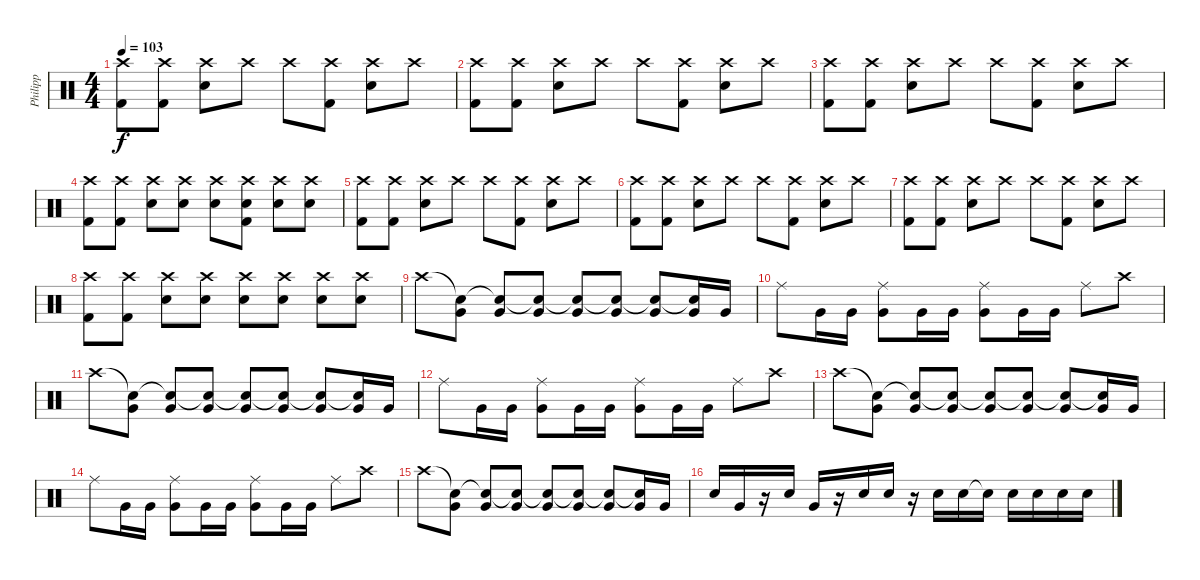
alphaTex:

\track ("Philipp" "Philipp") {instrument percussion}
\staff {score}
\articulation defaults
\ts (4 4)
\tempo 103
\clef neutral
\ks c
("Crash high (hit)" "Kick (hit) 2").8{dy f} ("Crash high (hit)" "Kick (hit) 2").8 ("Crash high (hit)" "Electric Snare (hit)").8 "Crash high (hit)".8 "Crash high (hit)".8 ("Crash high (hit)" "Kick (hit) 2").8 ("Crash high (hit)" "Electric Snare (hit)").8 "Crash high (hit)".8 |
("Crash high (hit)" "Kick (hit) 2").8 ("Crash high (hit)" "Kick (hit) 2").8 ("Crash high (hit)" "Electric Snare (hit)").8 "Crash high (hit)".8 "Crash high (hit)".8 ("Crash high (hit)" "Kick (hit) 2").8 ("Crash high (hit)" "Electric Snare (hit)").8 "Crash high (hit)".8 |
("Crash high (hit)" "Kick (hit) 2").8 ("Crash high (hit)" "Kick (hit) 2").8 ("Crash high (hit)" "Electric Snare (hit)").8 "Crash high (hit)".8 "Crash high (hit)".8 ("Crash high (hit)" "Kick (hit) 2").8 ("Crash high (hit)" "Electric Snare (hit)").8 "Crash high (hit)".8 |
("Crash high (hit)" "Kick (hit) 2").8 ("Crash high (hit)" "Kick (hit) 2").8 ("Crash high (hit)" "Electric Snare (hit)").8 ("Crash high (hit)" "Electric Snare (hit)").8 ("Crash high (hit)" "Electric Snare (hit)").8 ("Crash high (hit)" "Electric Snare (hit)" "Kick (hit) 2").8 ("Crash high (hit)" "Electric Snare (hit)").8 ("Crash high (hit)" "Electric Snare (hit)").8 |
("Crash high (hit)" "Kick (hit) 2").8 ("Crash high (hit)" "Kick (hit) 2").8 ("Crash high (hit)" "Electric Snare (hit)").8 "Crash high (hit)".8 "Crash high (hit)".8 ("Crash high (hit)" "Kick (hit) 2").8 ("Crash high (hit)" "Electric Snare (hit)").8 "Crash high (hit)".8 |
("Crash high (hit)" "Kick (hit) 2").8 ("Crash high (hit)" "Kick (hit) 2").8 ("Crash high (hit)" "Electric Snare (hit)").8 "Crash high (hit)".8 "Crash high (hit)".8 ("Crash high (hit)" "Kick (hit) 2").8 ("Crash high (hit)" "Electric Snare (hit)").8 "Crash high (hit)".8 |
("Crash high (hit)" "Kick (hit) 2").8 ("Crash high (hit)" "Kick (hit) 2").8 ("Crash high (hit)" "Electric Snare (hit)").8 "Crash high (hit)".8 "Crash high (hit)".8 ("Crash high (hit)" "Kick (hit) 2").8 ("Crash high (hit)" "Electric Snare (hit)").8 "Crash high (hit)".8 |
("Crash high (hit)" "Kick (hit) 2").8 ("Crash high (hit)" "Kick (hit) 2").8 ("Crash high (hit)" "Electric Snare (hit)").8 ("Crash high (hit)" "Electric Snare (hit)").8 ("Crash high (hit)" "Electric Snare (hit)").8 ("Crash high (hit)" "Electric Snare (hit)").8 ("Crash high (hit)" "Electric Snare (hit)").8 ("Crash high (hit)" "Electric Snare (hit)").8 |
"Crash high (hit)".8 ("Snare (hit)"{t} "Very Low Tom (hit)").8 ("Snare (hit)"{t} "Very Low Tom (hit)").8 ("Snare (hit)"{t} "Very Low Tom (hit)").8 ("Snare (hit)"{t} "Very Low Tom (hit)").8 ("Snare (hit)"{t} "Very Low Tom (hit)").8 ("Snare (hit)"{t} "Very Low Tom (hit)").8 ("Snare (hit)"{t} "Very Low Tom (hit)").16 "Very Low Tom (hit)".16 |
"Ride (middle)".8 "Very Low Tom (hit)".16 "Very Low Tom (hit)".16 ("Ride (middle)" "Very Low Tom (hit)").8 "Very Low Tom (hit)".16 "Very Low Tom (hit)".16 ("Ride (middle)" "Very Low Tom (hit)").8 "Very Low Tom (hit)".16 "Very Low Tom (hit)".16 "Ride (middle)".8 "Crash high (hit)".8 |
"Crash high (hit)".8 ("Snare (hit)"{t} "Very Low Tom (hit)").8 ("Snare (hit)"{t} "Very Low Tom (hit)").8 ("Snare (hit)"{t} "Very Low Tom (hit)").8 ("Snare (hit)"{t} "Very Low Tom (hit)").8 ("Snare (hit)"{t} "Very Low Tom (hit)").8 ("Snare (hit)"{t} "Very Low Tom (hit)").8 ("Snare (hit)"{t} "Very Low Tom (hit)").16 "Very Low Tom (hit)".16 |
"Ride (middle)".8 "Very Low Tom (hit)".16 "Very Low Tom (hit)".16 ("Ride (middle)" "Very Low Tom (hit)").8 "Very Low Tom (hit)".16 "Very Low Tom (hit)".16 ("Ride (middle)" "Very Low Tom (hit)").8 "Very Low Tom (hit)".16 "Very Low Tom (hit)".16 "Ride (middle)".8 "Crash high (hit)".8 |
"Crash high (hit)".8 ("Snare (hit)"{t} "Very Low Tom (hit)").8 ("Snare (hit)"{t} "Very Low Tom (hit)").8 ("Snare (hit)"{t} "Very Low Tom (hit)").8 ("Snare (hit)"{t} "Very Low Tom (hit)").8 ("Snare (hit)"{t} "Very Low Tom (hit)").8 ("Snare (hit)"{t} "Very Low Tom (hit)").8 ("Snare (hit)"{t} "Very Low Tom (hit)").16 "Very Low Tom (hit)".16 |
"Ride (middle)".8 "Very Low Tom (hit)".16 "Very Low Tom (hit)".16 ("Ride (middle)" "Very Low Tom (hit)").8 "Very Low Tom (hit)".16 "Very Low Tom (hit)".16 ("Ride (middle)" "Very Low Tom (hit)").8 "Very Low Tom (hit)".16 "Very Low Tom (hit)".16 "Ride (middle)".8 "Crash high (hit)".8 |
"Crash high (hit)".8 ("Snare (hit)"{t} "Very Low Tom (hit)").8 ("Snare (hit)"{t} "Very Low Tom (hit)").8 ("Snare (hit)"{t} "Very Low Tom (hit)").8 ("Snare (hit)"{t} "Very Low Tom (hit)").8 ("Snare (hit)"{t} "Very Low Tom (hit)").8 ("Snare (hit)"{t} "Very Low Tom (hit)").8 ("Snare (hit)"{t} "Very Low Tom (hit)").16 "Very Low Tom (hit)".16 |
"Electric Snare (hit)".16 "Very Low Tom (hit)".16 r.16 "Electric Snare (hit)".16 "Very Low Tom (hit)".16 r.16 "Electric Snare (hit)".16 "Electric Snare (hit)".16 r.16 "Electric Snare (hit)".16 "Electric Snare (hit)".16 "Snare (hit)"{t}.16 "Electric Snare (hit)".16 "Electric Snare (hit)".16 "Electric Snare (hit)".16 "Electric Snare (hit)".16
